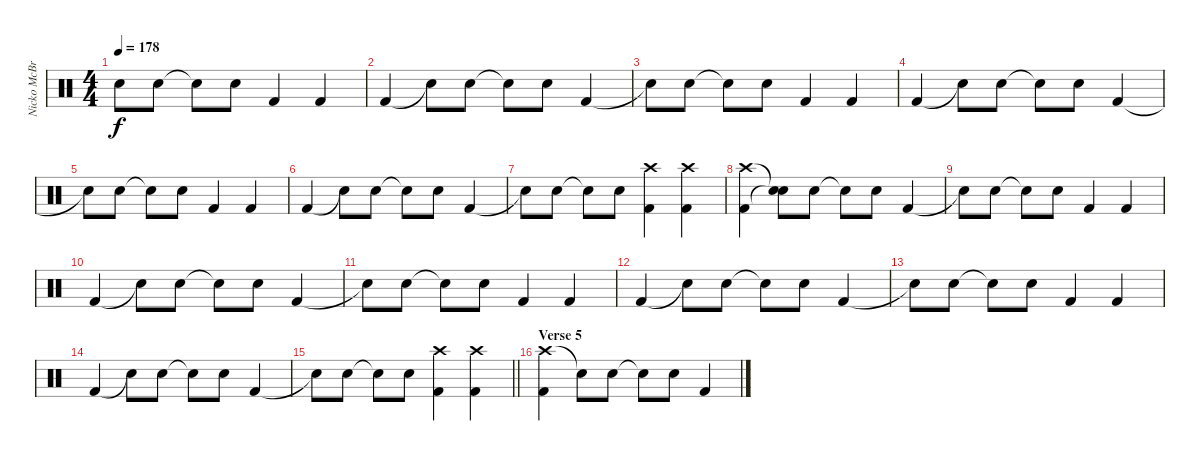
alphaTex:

\track ("Nicko McBrian" "Nicko McBr") {instrument percussion}
\staff {score}
\articulation defaults
\ts (4 4)
\tempo 178
\clef neutral
\ks c "Snare (hit)"{t}.8{dy f} "Electric Snare (hit)".8 "Snare (hit)"{t}.8 "Electric Snare (hit)".8 "Kick (hit) 2".4 "Kick (hit) 2".4
|
"Kick (hit) 2".4 "Snare (hit)"{t}.8 "Electric Snare (hit)".8 "Snare (hit)"{t}.8 "Electric Snare (hit)".8 "Kick (hit) 2".4 |
"Snare (hit)"{t}.8 "Electric Snare (hit)".8 "Snare (hit)"{t}.8 "Electric Snare (hit)".8 "Kick (hit) 2".4 "Kick (hit) 2".4 |
"Kick (hit) 2".4 "Snare (hit)"{t}.8 "Electric Snare (hit)".8 "Snare (hit)"{t}.8 "Electric Snare (hit)".8 "Kick (hit) 2".4 |
"Snare (hit)"{t}.8 "Electric Snare (hit)".8 "Snare (hit)"{t}.8 "Electric Snare (hit)".8 "Kick (hit) 2".4 "Kick (hit) 2".4 |
"Kick (hit) 2".4 "Snare (hit)"{t}.8 "Electric Snare (hit)".8 "Snare (hit)"{t}.8 "Electric Snare (hit)".8 "Kick (hit) 2".4 |
"Snare (hit)"{t}.8 "Electric Snare (hit)".8 "Snare (hit)"{t}.8 "Electric Snare (hit)".8 ("Crash high (hit)" "Kick (hit) 2").4 ("Crash high (hit)" "Kick (hit) 2").4 |
("Crash high (hit)" "Kick (hit) 2").4 ("Snare (hit)"{t} "Snare (hit)"{t}).8 "Electric Snare (hit)".8 "Snare (hit)"{t}.8 "Electric Snare (hit)".8 "Kick (hit) 2".4 |
"Snare (hit)"{t}.8 "Electric Snare (hit)".8 "Snare (hit)"{t}.8 "Electric Snare (hit)".8 "Kick (hit) 2".4 "Kick (hit) 2".4 |
"Kick (hit) 2".4 "Snare (hit)"{t}.8 "Electric Snare (hit)".8 "Snare (hit)"{t}.8 "Electric Snare (hit)".8 "Kick (hit) 2".4 |
"Snare (hit)"{t}.8 "Electric Snare (hit)".8 "Snare (hit)"{t}.8 "Electric Snare (hit)".8 "Kick (hit) 2".4 "Kick (hit) 2".4 |
"Kick (hit) 2".4 "Snare (hit)"{t}.8 "Electric Snare (hit)".8 "Snare (hit)"{t}.8 "Electric Snare (hit)".8 "Kick (hit) 2".4 |
"Snare (hit)"{t}.8 "Electric Snare (hit)".8 "Snare (hit)"{t}.8 "Electric Snare (hit)".8 "Kick (hit) 2".4 "Kick (hit) 2".4 |
"Kick (hit) 2".4 "Snare (hit)"{t}.8 "Electric Snare (hit)".8 "Snare (hit)"{t}.8 "Electric Snare (hit)".8 "Kick (hit) 2".4 |
\barLineRight lightlight "Snare (hit)"{t}.8 "Electric Snare (hit)".8 "Snare (hit)"{t}.8 "Electric Snare (hit)".8
("Crash high (hit)" "Kick (hit) 2").4 ("Crash high (hit)" "Kick (hit) 2").4 |
\section ("" "Verse 5")
("Crash high (hit)" "Kick (hit) 2").4 "Snare (hit)"{t}.8 "Electric Snare (hit)".8 "Snare (hit)"{t}.8 "Electric Snare (hit)".8 "Kick (hit) 2".4
